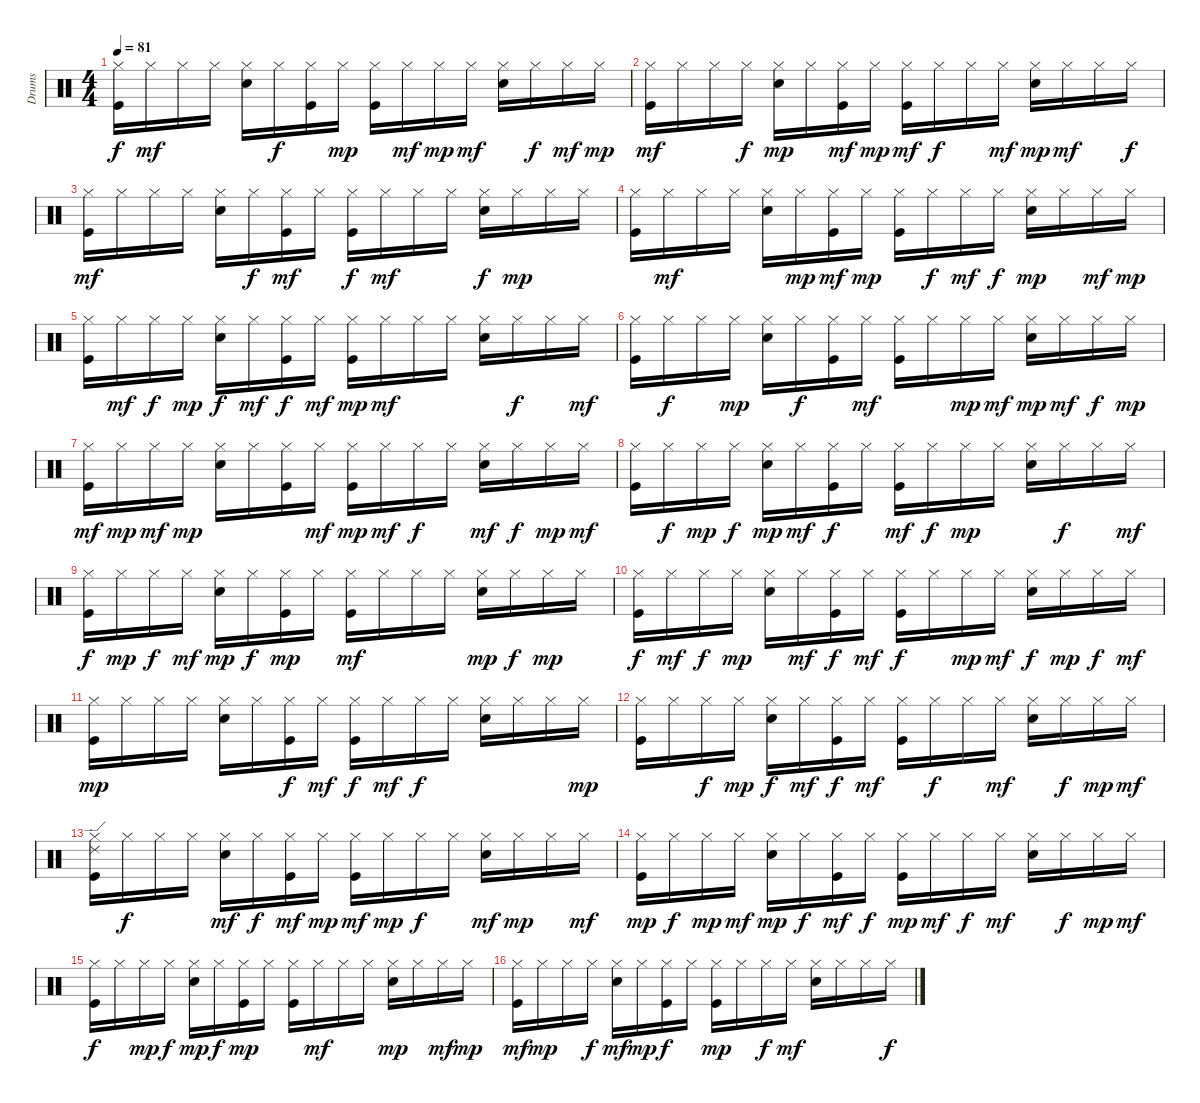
\track ("Drums" "Drums") {instrument percussion}
\staff {score}
\articulation defaults
\ts (4 4)
\tempo 81
\clef neutral
\ks c
("Kick (hit)" "Hi-Hat (closed)").16{dy f} "Hi-Hat (closed)".16{dy mf} "Hi-Hat (closed)".16 "Hi-Hat (closed)".16 ("Electric Snare (hit)" "Hi-Hat (closed)").16 "Hi-Hat (closed)".16{dy f} ("Kick (hit)" "Hi-Hat (closed)").16 "Hi-Hat (closed)".16{dy mp} ("Kick (hit)" "Hi-Hat (closed)").16 "Hi-Hat (closed)".16{dy mf} "Hi-Hat (closed)".16{dy mp} "Hi-Hat (closed)".16{dy mf} ("Electric Snare (hit)" "Hi-Hat (closed)").16 "Hi-Hat (closed)".16{dy f} "Hi-Hat (closed)".16{dy mf} "Hi-Hat (closed)".16{dy mp} |
("Kick (hit)" "Hi-Hat (closed)").16{dy mf} "Hi-Hat (closed)".16 "Hi-Hat (closed)".16 "Hi-Hat (closed)".16{dy f} ("Electric Snare (hit)" "Hi-Hat (closed)").16{dy mp} "Hi-Hat (closed)".16 ("Kick (hit)" "Hi-Hat (closed)").16{dy mf} "Hi-Hat (closed)".16{dy mp} ("Kick (hit)" "Hi-Hat (closed)").16{dy mf} "Hi-Hat (closed)".16{dy f} "Hi-Hat (closed)".16 "Hi-Hat (closed)".16{dy mf} ("Electric Snare (hit)" "Hi-Hat (closed)").16{dy mp} "Hi-Hat (closed)".16{dy mf} "Hi-Hat (closed)".16 "Hi-Hat (closed)".16{dy f} |
("Kick (hit)" "Hi-Hat (closed)").16{dy mf} "Hi-Hat (closed)".16 "Hi-Hat (closed)".16 "Hi-Hat (closed)".16 ("Electric Snare (hit)" "Hi-Hat (closed)").16 "Hi-Hat (closed)".16{dy f} ("Kick (hit)" "Hi-Hat (closed)").16{dy mf} "Hi-Hat (closed)".16 ("Kick (hit)" "Hi-Hat (closed)").16{dy f} "Hi-Hat (closed)".16{dy mf} "Hi-Hat (closed)".16 "Hi-Hat (closed)".16 ("Electric Snare (hit)" "Hi-Hat (closed)").16{dy f} "Hi-Hat (closed)".16{dy mp} "Hi-Hat (closed)".16 "Hi-Hat (closed)".16 |
("Kick (hit)" "Hi-Hat (closed)").16 "Hi-Hat (closed)".16{dy mf} "Hi-Hat (closed)".16 "Hi-Hat (closed)".16 ("Electric Snare (hit)" "Hi-Hat (closed)").16 "Hi-Hat (closed)".16{dy mp} ("Kick (hit)" "Hi-Hat (closed)").16{dy mf} "Hi-Hat (closed)".16{dy mp} ("Kick (hit)" "Hi-Hat (closed)").16 "Hi-Hat (closed)".16{dy f} "Hi-Hat (closed)".16{dy mf} "Hi-Hat (closed)".16{dy f} ("Electric Snare (hit)" "Hi-Hat (closed)").16{dy mp} "Hi-Hat (closed)".16 "Hi-Hat (closed)".16{dy mf} "Hi-Hat (closed)".16{dy mp} |
("Kick (hit)" "Hi-Hat (closed)").16 "Hi-Hat (closed)".16{dy mf} "Hi-Hat (closed)".16{dy f} "Hi-Hat (closed)".16{dy mp} ("Electric Snare (hit)" "Hi-Hat (closed)").16{dy f} "Hi-Hat (closed)".16{dy mf} ("Kick (hit)" "Hi-Hat (closed)").16{dy f} "Hi-Hat (closed)".16{dy mf} ("Kick (hit)" "Hi-Hat (closed)").16{dy mp} "Hi-Hat (closed)".16{dy mf} "Hi-Hat (closed)".16 "Hi-Hat (closed)".16 ("Electric Snare (hit)" "Hi-Hat (closed)").16 "Hi-Hat (closed)".16{dy f} "Hi-Hat (closed)".16 "Hi-Hat (closed)".16{dy mf} |
("Kick (hit)" "Hi-Hat (closed)").16 "Hi-Hat (closed)".16{dy f} "Hi-Hat (closed)".16 "Hi-Hat (closed)".16{dy mp} ("Electric Snare (hit)" "Hi-Hat (closed)").16 "Hi-Hat (closed)".16{dy f} ("Kick (hit)" "Hi-Hat (closed)").16 "Hi-Hat (closed)".16{dy mf} ("Kick (hit)" "Hi-Hat (closed)").16 "Hi-Hat (closed)".16 "Hi-Hat (closed)".16{dy mp} "Hi-Hat (closed)".16{dy mf} ("Electric Snare (hit)" "Hi-Hat (closed)").16{dy mp} "Hi-Hat (closed)".16{dy mf} "Hi-Hat (closed)".16{dy f} "Hi-Hat (closed)".16{dy mp} |
("Kick (hit)" "Hi-Hat (closed)").16{dy mf} "Hi-Hat (closed)".16{dy mp} "Hi-Hat (closed)".16{dy mf} "Hi-Hat (closed)".16{dy mp} ("Electric Snare (hit)" "Hi-Hat (closed)").16 "Hi-Hat (closed)".16 ("Kick (hit)" "Hi-Hat (closed)").16 "Hi-Hat (closed)".16{dy mf} ("Kick (hit)" "Hi-Hat (closed)").16{dy mp} "Hi-Hat (closed)".16{dy mf} "Hi-Hat (closed)".16{dy f} "Hi-Hat (closed)".16 ("Electric Snare (hit)" "Hi-Hat (closed)").16{dy mf} "Hi-Hat (closed)".16{dy f} "Hi-Hat (closed)".16{dy mp} "Hi-Hat (closed)".16{dy mf} |
("Kick (hit)" "Hi-Hat (closed)").16 "Hi-Hat (closed)".16{dy f} "Hi-Hat (closed)".16{dy mp} "Hi-Hat (closed)".16{dy f} ("Electric Snare (hit)" "Hi-Hat (closed)").16{dy mp} "Hi-Hat (closed)".16{dy mf} ("Kick (hit)" "Hi-Hat (closed)").16{dy f} "Hi-Hat (closed)".16 ("Kick (hit)" "Hi-Hat (closed)").16{dy mf} "Hi-Hat (closed)".16{dy f} "Hi-Hat (closed)".16{dy mp} "Hi-Hat (closed)".16 ("Electric Snare (hit)" "Hi-Hat (closed)").16 "Hi-Hat (closed)".16{dy f} "Hi-Hat (closed)".16 "Hi-Hat (closed)".16{dy mf} |
("Kick (hit)" "Hi-Hat (closed)").16{dy f} "Hi-Hat (closed)".16{dy mp} "Hi-Hat (closed)".16{dy f} "Hi-Hat (closed)".16{dy mf} ("Electric Snare (hit)" "Hi-Hat (closed)").16{dy mp} "Hi-Hat (closed)".16{dy f} ("Kick (hit)" "Hi-Hat (closed)").16{dy mp} "Hi-Hat (closed)".16 ("Kick (hit)" "Hi-Hat (closed)").16{dy mf} "Hi-Hat (closed)".16 "Hi-Hat (closed)".16 "Hi-Hat (closed)".16 ("Electric Snare (hit)" "Hi-Hat (closed)").16{dy mp} "Hi-Hat (closed)".16{dy f} "Hi-Hat (closed)".16{dy mp} "Hi-Hat (closed)".16 |
("Kick (hit)" "Hi-Hat (closed)").16{dy f} "Hi-Hat (closed)".16{dy mf} "Hi-Hat (closed)".16{dy f} "Hi-Hat (closed)".16{dy mp} ("Electric Snare (hit)" "Hi-Hat (closed)").16 "Hi-Hat (closed)".16{dy mf} ("Kick (hit)" "Hi-Hat (closed)").16{dy f} "Hi-Hat (closed)".16{dy mf} ("Kick (hit)" "Hi-Hat (closed)").16{dy f} "Hi-Hat (closed)".16 "Hi-Hat (closed)".16{dy mp} "Hi-Hat (closed)".16{dy mf} ("Electric Snare (hit)" "Hi-Hat (closed)").16{dy f} "Hi-Hat (closed)".16{dy mp} "Hi-Hat (closed)".16{dy f} "Hi-Hat (closed)".16{dy mf} |
("Kick (hit)" "Hi-Hat (closed)").16{dy mp} "Hi-Hat (closed)".16 "Hi-Hat (closed)".16 "Hi-Hat (closed)".16 ("Electric Snare (hit)" "Hi-Hat (closed)").16 "Hi-Hat (closed)".16 ("Kick (hit)" "Hi-Hat (closed)").16{dy f} "Hi-Hat (closed)".16{dy mf} ("Kick (hit)" "Hi-Hat (closed)").16{dy f} "Hi-Hat (closed)".16{dy mf} "Hi-Hat (closed)".16{dy f} "Hi-Hat (closed)".16 ("Electric Snare (hit)" "Hi-Hat (closed)").16 "Hi-Hat (closed)".16 "Hi-Hat (closed)".16 "Hi-Hat (closed)".16{dy mp} |
("Kick (hit)" "Hi-Hat (closed)").16 "Hi-Hat (closed)".16 "Hi-Hat (closed)".16{dy f} "Hi-Hat (closed)".16{dy mp} ("Electric Snare (hit)" "Hi-Hat (closed)").16{dy f} "Hi-Hat (closed)".16{dy mf} ("Kick (hit)" "Hi-Hat (closed)").16{dy f} "Hi-Hat (closed)".16{dy mf} ("Kick (hit)" "Hi-Hat (closed)").16 "Hi-Hat (closed)".16{dy f} "Hi-Hat (closed)".16 "Hi-Hat (closed)".16{dy mf} ("Electric Snare (hit)" "Hi-Hat (closed)").16 "Hi-Hat (closed)".16{dy f} "Hi-Hat (closed)".16{dy mp} "Hi-Hat (closed)".16{dy mf} |
("Kick (hit)" "Hi-Hat (closed)" "Ride (edge) 2").16 "Hi-Hat (closed)".16{dy f} "Hi-Hat (closed)".16 "Hi-Hat (closed)".16 ("Electric Snare (hit)" "Hi-Hat (closed)").16{dy mf} "Hi-Hat (closed)".16{dy f} ("Kick (hit)" "Hi-Hat (closed)").16{dy mf} "Hi-Hat (closed)".16{dy mp} ("Kick (hit)" "Hi-Hat (closed)").16{dy mf} "Hi-Hat (closed)".16{dy mp} "Hi-Hat (closed)".16{dy f} "Hi-Hat (closed)".16 ("Electric Snare (hit)" "Hi-Hat (closed)").16{dy mf} "Hi-Hat (closed)".16{dy mp} "Hi-Hat (closed)".16 "Hi-Hat (closed)".16{dy mf} |
("Kick (hit)" "Hi-Hat (closed)").16{dy mp} "Hi-Hat (closed)".16{dy f} "Hi-Hat (closed)".16{dy mp} "Hi-Hat (closed)".16{dy mf} ("Electric Snare (hit)" "Hi-Hat (closed)").16{dy mp} "Hi-Hat (closed)".16{dy f} ("Kick (hit)" "Hi-Hat (closed)").16{dy mf} "Hi-Hat (closed)".16{dy f} ("Kick (hit)" "Hi-Hat (closed)").16{dy mp} "Hi-Hat (closed)".16{dy mf} "Hi-Hat (closed)".16{dy f} "Hi-Hat (closed)".16{dy mf} ("Electric Snare (hit)" "Hi-Hat (closed)").16 "Hi-Hat (closed)".16{dy f} "Hi-Hat (closed)".16{dy mp} "Hi-Hat (closed)".16{dy mf} |
("Kick (hit)" "Hi-Hat (closed)").16{dy f} "Hi-Hat (closed)".16 "Hi-Hat (closed)".16{dy mp} "Hi-Hat (closed)".16{dy f} ("Electric Snare (hit)" "Hi-Hat (closed)").16{dy mp} "Hi-Hat (closed)".16{dy f} ("Kick (hit)" "Hi-Hat (closed)").16{dy mp} "Hi-Hat (closed)".16 ("Kick (hit)" "Hi-Hat (closed)").16 "Hi-Hat (closed)".16{dy mf} "Hi-Hat (closed)".16 "Hi-Hat (closed)".16 ("Electric Snare (hit)" "Hi-Hat (closed)").16{dy mp} "Hi-Hat (closed)".16 "Hi-Hat (closed)".16{dy mf} "Hi-Hat (closed)".16{dy mp} |
("Kick (hit)" "Hi-Hat (closed)").16{dy mf} "Hi-Hat (closed)".16{dy mp} "Hi-Hat (closed)".16 "Hi-Hat (closed)".16{dy f} ("Electric Snare (hit)" "Hi-Hat (closed)").16{dy mf} "Hi-Hat (closed)".16{dy mp} ("Kick (hit)" "Hi-Hat (closed)").16{dy f} "Hi-Hat (closed)".16 ("Kick (hit)" "Hi-Hat (closed)").16{dy mp} "Hi-Hat (closed)".16 "Hi-Hat (closed)".16{dy f} "Hi-Hat (closed)".16{dy mf} ("Electric Snare (hit)" "Hi-Hat (closed)").16 "Hi-Hat (closed)".16 "Hi-Hat (closed)".16 "Hi-Hat (closed)".16{dy f}
